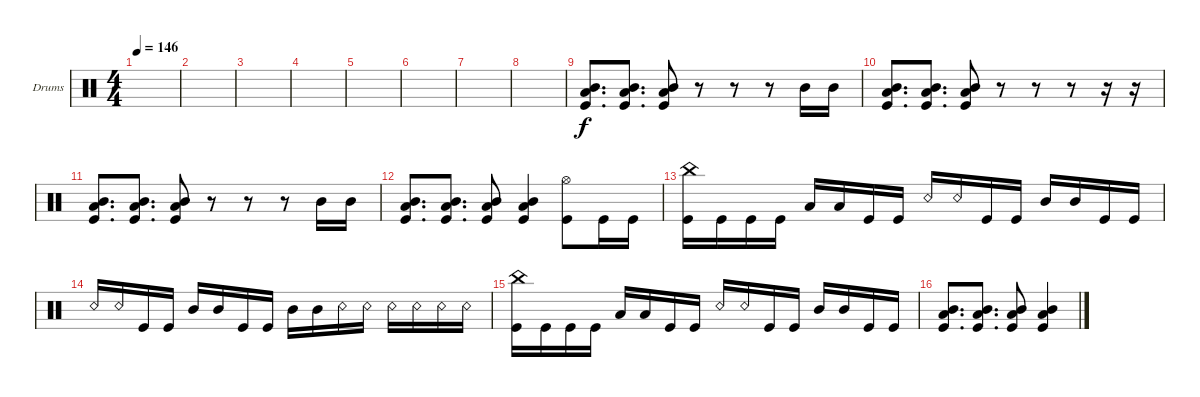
\defaultSystemsLayout 4
\bracketExtendMode groupsimilarinstruments
\firstSystemTrackNameOrientation horizontal
\otherSystemsTrackNameOrientation horizontal
\track ("Drums" "Drums") {instrument percussion}
\staff {score}
\articulation defaults
\ts (4 4)
\tempo 146
\clef neutral
\ks c
|
|
|
|
|
|
|
|
("Kick (hit)" "Mid Tom (hit)" "Low Tom (hit)").8{d} ("Kick (hit)" "Mid Tom (hit)" "Low Tom (hit)").8{d} ("Kick (hit)" "Mid Tom (hit)" "Low Tom (hit)").8 r.8 r.8 r.8 "Mid Tom (hit)".16 "Mid Tom (hit)".16 |
("Kick (hit)" "Mid Tom (hit)" "Low Tom (hit)").8{d} ("Kick (hit)" "Mid Tom (hit)" "Low Tom (hit)").8{d} ("Kick (hit)" "Mid Tom (hit)" "Low Tom (hit)").8 r.8 r.8 r.8 r.16 r.16 |
("Kick (hit)" "Mid Tom (hit)" "Low Tom (hit)").8{d} ("Kick (hit)" "Mid Tom (hit)" "Low Tom (hit)").8{d} ("Kick (hit)" "Mid Tom (hit)" "Low Tom (hit)").8 r.8 r.8 r.8 "Mid Tom (hit)".16 "Mid Tom (hit)".16 |
("Kick (hit)" "Mid Tom (hit)" "Low Tom (hit)").8{d} ("Kick (hit)" "Mid Tom (hit)" "Low Tom (hit)").8{d} ("Kick (hit)" "Mid Tom (hit)" "Low Tom (hit)").8 ("Kick (hit)" "Mid Tom (hit)" "Low Tom (hit)").4 ("Kick (hit)" "Hi-Hat (open)").8 "Kick (hit)".16 "Kick (hit)".16 |
("Kick (hit)" "China (hit)").16 "Kick (hit)".16 "Kick (hit)".16 "Kick (hit)".16 "Low Tom (hit)".16 "Low Tom (hit)".16 "Kick (hit)".16 "Kick (hit)".16 "Snare (rim shot)".16 "Snare (rim shot)".16 "Kick (hit)".16 "Kick (hit)".16 "Mid Tom (hit)".16 "Mid Tom (hit)".16 "Kick (hit)".16 "Kick (hit)".16 |
"Snare (rim shot)".16 "Snare (rim shot)".16 "Kick (hit)".16 "Kick (hit)".16 "Mid Tom (hit)".16 "Mid Tom (hit)".16 "Kick (hit)".16 "Kick (hit)".16 "Mid Tom (hit)".16 "Mid Tom (hit)".16 "Snare (rim shot)".16 "Snare (rim shot)".16 "Snare (rim shot)".16 "Snare (rim shot)".16 "Snare (rim shot)".16 "Snare (rim shot)".16 |
("Kick (hit)" "China (hit)").16 "Kick (hit)".16 "Kick (hit)".16 "Kick (hit)".16 "Low Tom (hit)".16 "Low Tom (hit)".16 "Kick (hit)".16 "Kick (hit)".16 "Snare (rim shot)".16 "Snare (rim shot)".16 "Kick (hit)".16 "Kick (hit)".16 "Mid Tom (hit)".16 "Mid Tom (hit)".16 "Kick (hit)".16 "Kick (hit)".16 |
("Kick (hit)" "Mid Tom (hit)" "Low Tom (hit)").8{d} ("Kick (hit)" "Mid Tom (hit)" "Low Tom (hit)").8{d} ("Kick (hit)" "Mid Tom (hit)" "Low Tom (hit)").8 ("Kick (hit)" "Mid Tom (hit)" "Low Tom (hit)").4
